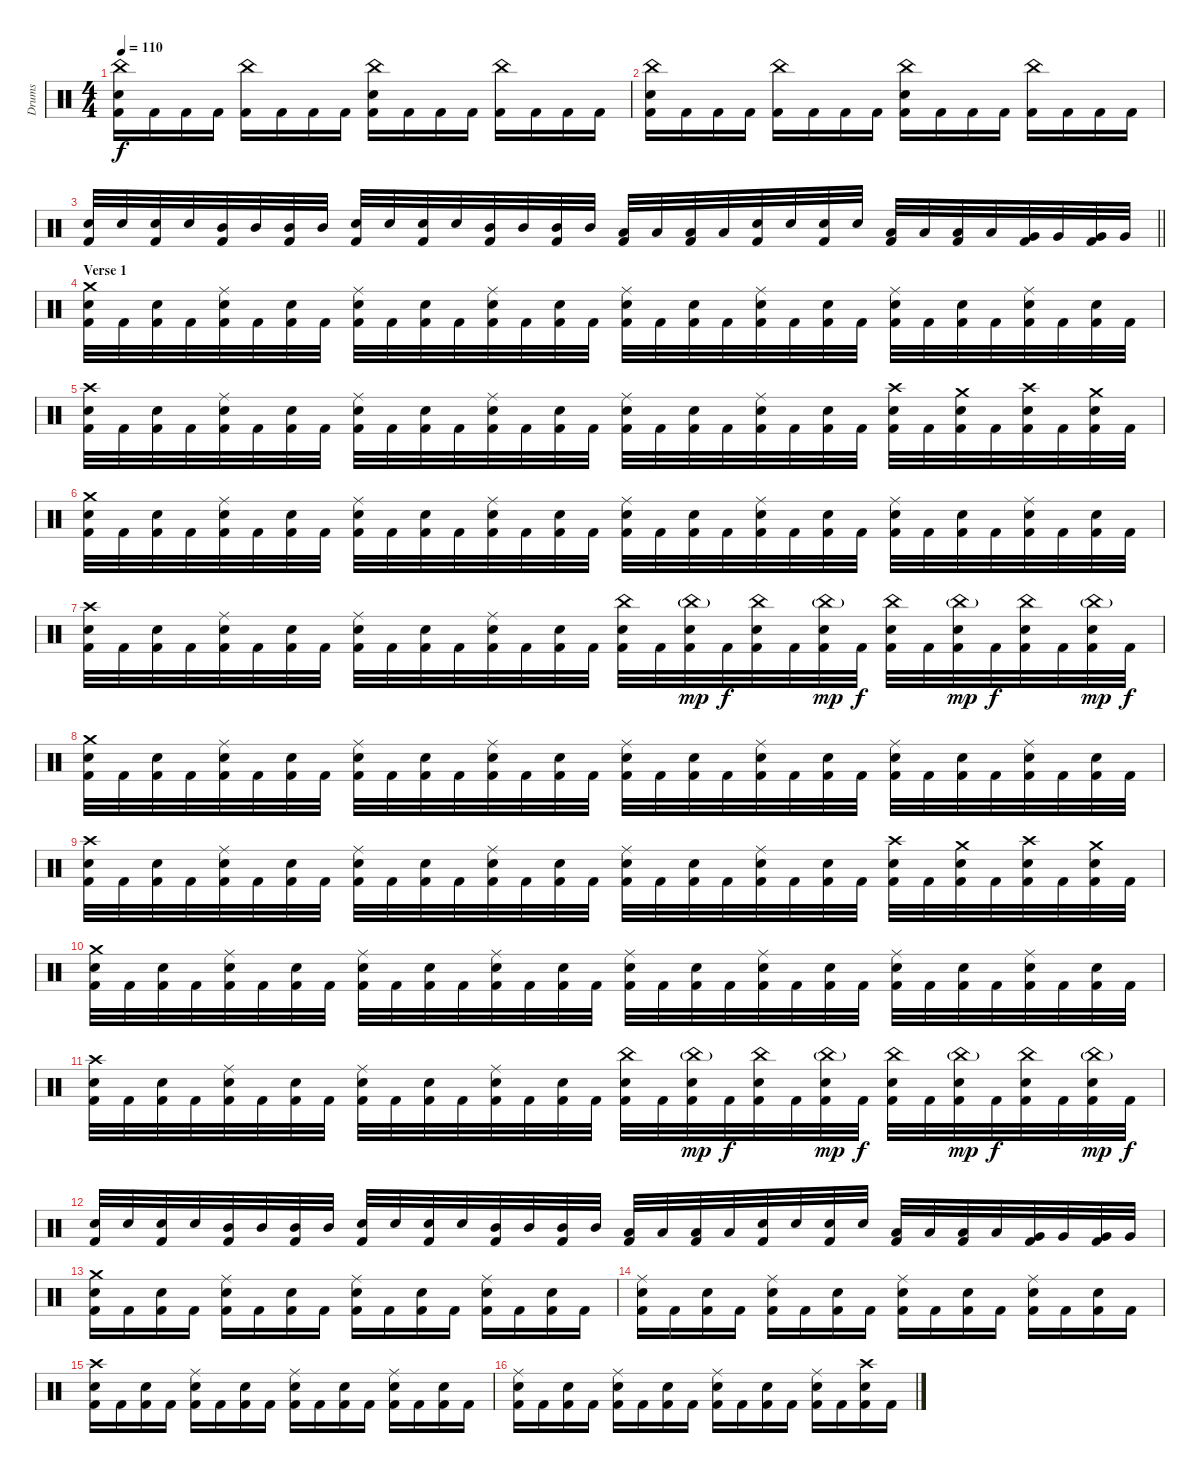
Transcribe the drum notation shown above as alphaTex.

\track ("Drums" "Drums") {instrument percussion}
\staff {score}
\articulation defaults
\ts (4 4)
\tempo 110
\clef neutral
\ks c
("Kick (hit) 2" "Snare (hit) 2" "China (hit)").16{dy f} "Kick (hit) 2".16 "Kick (hit) 2".16 "Kick (hit) 2".16 ("Kick (hit) 2" "China (hit)").16 "Kick (hit) 2".16 "Kick (hit) 2".16 "Kick (hit) 2".16 ("Kick (hit) 2" "Snare (hit) 2" "China (hit)").16 "Kick (hit) 2".16 "Kick (hit) 2".16 "Kick (hit) 2".16 ("Kick (hit) 2" "China (hit)").16 "Kick (hit) 2".16 "Kick (hit) 2".16 "Kick (hit) 2".16 |
("Kick (hit) 2" "Snare (hit) 2" "China (hit)").16 "Kick (hit) 2".16 "Kick (hit) 2".16 "Kick (hit) 2".16 ("Kick (hit) 2" "China (hit)").16 "Kick (hit) 2".16 "Kick (hit) 2".16 "Kick (hit) 2".16 ("Kick (hit) 2" "Snare (hit) 2" "China (hit)").16 "Kick (hit) 2".16 "Kick (hit) 2".16 "Kick (hit) 2".16 ("Kick (hit) 2" "China (hit)").16 "Kick (hit) 2".16 "Kick (hit) 2".16 "Kick (hit) 2".16 |
\barLineRight lightlight
("Kick (hit) 2" "Snare (hit) 2").32 "Snare (hit) 2".32 ("Kick (hit) 2" "Snare (hit) 2").32 "Snare (hit) 2".32 ("Kick (hit) 2" "Mid Tom (hit)").32 "Mid Tom (hit)".32 ("Kick (hit) 2" "Mid Tom (hit)").32 "Mid Tom (hit)".32 ("Kick (hit) 2" "Snare (hit) 2").32 "Snare (hit) 2".32 ("Kick (hit) 2" "Snare (hit) 2").32 "Snare (hit) 2".32 ("Kick (hit) 2" "Mid Tom (hit)").32 "Mid Tom (hit)".32 ("Kick (hit) 2" "Mid Tom (hit)").32 "Mid Tom (hit)".32 ("Kick (hit) 2" "Low Tom (hit)").32 "Low Tom (hit)".32 ("Kick (hit) 2" "Low Tom (hit)").32 "Low Tom (hit)".32 ("Kick (hit) 2" "Snare (hit) 2").32 "Snare (hit) 2".32 ("Kick (hit) 2" "Snare (hit) 2").32 "Snare (hit) 2".32 ("Kick (hit) 2" "Low Tom (hit)").32 "Low Tom (hit)".32 ("Kick (hit) 2" "Low Tom (hit)").32 "Low Tom (hit)".32 ("Kick (hit) 2" "Very Low Tom (hit)").32 "Very Low Tom (hit)".32 ("Kick (hit) 2" "Very Low Tom (hit)").32 "Very Low Tom (hit)".32 |
\section ("" "Verse 1")
("Kick (hit) 2" "Snare (hit) 2" "Crash medium (hit)").32 "Kick (hit) 2".32 ("Kick (hit) 2" "Snare (hit) 2").32 "Kick (hit) 2".32 ("Kick (hit) 2" "Snare (hit) 2" "Ride (middle)").32 "Kick (hit) 2".32 ("Kick (hit) 2" "Snare (hit) 2").32 "Kick (hit) 2".32 ("Kick (hit) 2" "Snare (hit) 2" "Ride (middle)").32 "Kick (hit) 2".32 ("Kick (hit) 2" "Snare (hit) 2").32 "Kick (hit) 2".32 ("Kick (hit) 2" "Snare (hit) 2" "Ride (middle)").32 "Kick (hit) 2".32 ("Kick (hit) 2" "Snare (hit) 2").32 "Kick (hit) 2".32 ("Kick (hit) 2" "Snare (hit) 2" "Ride (middle)").32 "Kick (hit) 2".32 ("Kick (hit) 2" "Snare (hit) 2").32 "Kick (hit) 2".32 ("Kick (hit) 2" "Snare (hit) 2" "Ride (middle)").32 "Kick (hit) 2".32 ("Kick (hit) 2" "Snare (hit) 2").32 "Kick (hit) 2".32 ("Kick (hit) 2" "Snare (hit) 2" "Ride (middle)").32 "Kick (hit) 2".32 ("Kick (hit) 2" "Snare (hit) 2").32 "Kick (hit) 2".32 ("Kick (hit) 2" "Snare (hit) 2" "Ride (middle)").32 "Kick (hit) 2".32 ("Kick (hit) 2" "Snare (hit) 2").32 "Kick (hit) 2".32 |
("Kick (hit) 2" "Snare (hit) 2" "Crash high (hit)").32 "Kick (hit) 2".32 ("Kick (hit) 2" "Snare (hit) 2").32 "Kick (hit) 2".32 ("Kick (hit) 2" "Snare (hit) 2" "Ride (middle)").32 "Kick (hit) 2".32 ("Kick (hit) 2" "Snare (hit) 2").32 "Kick (hit) 2".32 ("Kick (hit) 2" "Snare (hit) 2" "Ride (middle)").32 "Kick (hit) 2".32 ("Kick (hit) 2" "Snare (hit) 2").32 "Kick (hit) 2".32 ("Kick (hit) 2" "Snare (hit) 2" "Ride (middle)").32 "Kick (hit) 2".32 ("Kick (hit) 2" "Snare (hit) 2").32 "Kick (hit) 2".32 ("Kick (hit) 2" "Snare (hit) 2" "Ride (middle)").32 "Kick (hit) 2".32 ("Kick (hit) 2" "Snare (hit) 2").32 "Kick (hit) 2".32 ("Kick (hit) 2" "Snare (hit) 2" "Ride (middle)").32 "Kick (hit) 2".32 ("Kick (hit) 2" "Snare (hit) 2").32 "Kick (hit) 2".32 ("Kick (hit) 2" "Snare (hit) 2" "Crash high (hit)").32 "Kick (hit) 2".32 ("Kick (hit) 2" "Snare (hit) 2" "Crash medium (hit)").32 "Kick (hit) 2".32 ("Kick (hit) 2" "Snare (hit) 2" "Crash high (hit)").32 "Kick (hit) 2".32 ("Kick (hit) 2" "Snare (hit) 2" "Crash medium (hit)").32 "Kick (hit) 2".32 |
("Kick (hit) 2" "Snare (hit) 2" "Crash medium (hit)").32 "Kick (hit) 2".32 ("Kick (hit) 2" "Snare (hit) 2").32 "Kick (hit) 2".32 ("Kick (hit) 2" "Snare (hit) 2" "Ride (middle)").32 "Kick (hit) 2".32 ("Kick (hit) 2" "Snare (hit) 2").32 "Kick (hit) 2".32 ("Kick (hit) 2" "Snare (hit) 2" "Ride (middle)").32 "Kick (hit) 2".32 ("Kick (hit) 2" "Snare (hit) 2").32 "Kick (hit) 2".32 ("Kick (hit) 2" "Snare (hit) 2" "Ride (middle)").32 "Kick (hit) 2".32 ("Kick (hit) 2" "Snare (hit) 2").32 "Kick (hit) 2".32 ("Kick (hit) 2" "Snare (hit) 2" "Ride (middle)").32 "Kick (hit) 2".32 ("Kick (hit) 2" "Snare (hit) 2").32 "Kick (hit) 2".32 ("Kick (hit) 2" "Snare (hit) 2" "Ride (middle)").32 "Kick (hit) 2".32 ("Kick (hit) 2" "Snare (hit) 2").32 "Kick (hit) 2".32 ("Kick (hit) 2" "Snare (hit) 2" "Ride (middle)").32 "Kick (hit) 2".32 ("Kick (hit) 2" "Snare (hit) 2").32 "Kick (hit) 2".32 ("Kick (hit) 2" "Snare (hit) 2" "Ride (middle)").32 "Kick (hit) 2".32 ("Kick (hit) 2" "Snare (hit) 2").32 "Kick (hit) 2".32 |
("Kick (hit) 2" "Snare (hit) 2" "Crash high (hit)").32 "Kick (hit) 2".32 ("Kick (hit) 2" "Snare (hit) 2").32 "Kick (hit) 2".32 ("Kick (hit) 2" "Snare (hit) 2" "Ride (middle)").32 "Kick (hit) 2".32 ("Kick (hit) 2" "Snare (hit) 2").32 "Kick (hit) 2".32 ("Kick (hit) 2" "Snare (hit) 2" "Ride (middle)").32 "Kick (hit) 2".32 ("Kick (hit) 2" "Snare (hit) 2").32 "Kick (hit) 2".32 ("Kick (hit) 2" "Snare (hit) 2" "Ride (middle)").32 "Kick (hit) 2".32 ("Kick (hit) 2" "Snare (hit) 2").32 "Kick (hit) 2".32 ("Kick (hit) 2" "Snare (hit) 2" "China (hit)").32 "Kick (hit) 2".32 ("Kick (hit) 2" "Snare (hit) 2" "China (hit)"{g}).32{dy mp} "Kick (hit) 2".32{dy f} ("Kick (hit) 2" "Snare (hit) 2" "China (hit)").32 "Kick (hit) 2".32 ("Kick (hit) 2" "Snare (hit) 2" "China (hit)"{g}).32{dy mp} "Kick (hit) 2".32{dy f} ("Kick (hit) 2" "Snare (hit) 2" "China (hit)").32 "Kick (hit) 2".32 ("Kick (hit) 2" "Snare (hit) 2" "China (hit)"{g}).32{dy mp} "Kick (hit) 2".32{dy f} ("Kick (hit) 2" "Snare (hit) 2" "China (hit)").32 "Kick (hit) 2".32 ("Kick (hit) 2" "Snare (hit) 2" "China (hit)"{g}).32{dy mp} "Kick (hit) 2".32{dy f} |
("Kick (hit) 2" "Snare (hit) 2" "Crash medium (hit)").32 "Kick (hit) 2".32 ("Kick (hit) 2" "Snare (hit) 2").32 "Kick (hit) 2".32 ("Kick (hit) 2" "Snare (hit) 2" "Ride (middle)").32 "Kick (hit) 2".32 ("Kick (hit) 2" "Snare (hit) 2").32 "Kick (hit) 2".32 ("Kick (hit) 2" "Snare (hit) 2" "Ride (middle)").32 "Kick (hit) 2".32 ("Kick (hit) 2" "Snare (hit) 2").32 "Kick (hit) 2".32 ("Kick (hit) 2" "Snare (hit) 2" "Ride (middle)").32 "Kick (hit) 2".32 ("Kick (hit) 2" "Snare (hit) 2").32 "Kick (hit) 2".32 ("Kick (hit) 2" "Snare (hit) 2" "Ride (middle)").32 "Kick (hit) 2".32 ("Kick (hit) 2" "Snare (hit) 2").32 "Kick (hit) 2".32 ("Kick (hit) 2" "Snare (hit) 2" "Ride (middle)").32 "Kick (hit) 2".32 ("Kick (hit) 2" "Snare (hit) 2").32 "Kick (hit) 2".32 ("Kick (hit) 2" "Snare (hit) 2" "Ride (middle)").32 "Kick (hit) 2".32 ("Kick (hit) 2" "Snare (hit) 2").32 "Kick (hit) 2".32 ("Kick (hit) 2" "Snare (hit) 2" "Ride (middle)").32 "Kick (hit) 2".32 ("Kick (hit) 2" "Snare (hit) 2").32 "Kick (hit) 2".32 |
("Kick (hit) 2" "Snare (hit) 2" "Crash high (hit)").32 "Kick (hit) 2".32 ("Kick (hit) 2" "Snare (hit) 2").32 "Kick (hit) 2".32 ("Kick (hit) 2" "Snare (hit) 2" "Ride (middle)").32 "Kick (hit) 2".32 ("Kick (hit) 2" "Snare (hit) 2").32 "Kick (hit) 2".32 ("Kick (hit) 2" "Snare (hit) 2" "Ride (middle)").32 "Kick (hit) 2".32 ("Kick (hit) 2" "Snare (hit) 2").32 "Kick (hit) 2".32 ("Kick (hit) 2" "Snare (hit) 2" "Ride (middle)").32 "Kick (hit) 2".32 ("Kick (hit) 2" "Snare (hit) 2").32 "Kick (hit) 2".32 ("Kick (hit) 2" "Snare (hit) 2" "Ride (middle)").32 "Kick (hit) 2".32 ("Kick (hit) 2" "Snare (hit) 2").32 "Kick (hit) 2".32 ("Kick (hit) 2" "Snare (hit) 2" "Ride (middle)").32 "Kick (hit) 2".32 ("Kick (hit) 2" "Snare (hit) 2").32 "Kick (hit) 2".32 ("Kick (hit) 2" "Snare (hit) 2" "Crash high (hit)").32 "Kick (hit) 2".32 ("Kick (hit) 2" "Snare (hit) 2" "Crash medium (hit)").32 "Kick (hit) 2".32 ("Kick (hit) 2" "Snare (hit) 2" "Crash high (hit)").32 "Kick (hit) 2".32 ("Kick (hit) 2" "Snare (hit) 2" "Crash medium (hit)").32 "Kick (hit) 2".32 |
("Kick (hit) 2" "Snare (hit) 2" "Crash medium (hit)").32 "Kick (hit) 2".32 ("Kick (hit) 2" "Snare (hit) 2").32 "Kick (hit) 2".32 ("Kick (hit) 2" "Snare (hit) 2" "Ride (middle)").32 "Kick (hit) 2".32 ("Kick (hit) 2" "Snare (hit) 2").32 "Kick (hit) 2".32 ("Kick (hit) 2" "Snare (hit) 2" "Ride (middle)").32 "Kick (hit) 2".32 ("Kick (hit) 2" "Snare (hit) 2").32 "Kick (hit) 2".32 ("Kick (hit) 2" "Snare (hit) 2" "Ride (middle)").32 "Kick (hit) 2".32 ("Kick (hit) 2" "Snare (hit) 2").32 "Kick (hit) 2".32 ("Kick (hit) 2" "Snare (hit) 2" "Ride (middle)").32 "Kick (hit) 2".32 ("Kick (hit) 2" "Snare (hit) 2").32 "Kick (hit) 2".32 ("Kick (hit) 2" "Snare (hit) 2" "Ride (middle)").32 "Kick (hit) 2".32 ("Kick (hit) 2" "Snare (hit) 2").32 "Kick (hit) 2".32 ("Kick (hit) 2" "Snare (hit) 2" "Ride (middle)").32 "Kick (hit) 2".32 ("Kick (hit) 2" "Snare (hit) 2").32 "Kick (hit) 2".32 ("Kick (hit) 2" "Snare (hit) 2" "Ride (middle)").32 "Kick (hit) 2".32 ("Kick (hit) 2" "Snare (hit) 2").32 "Kick (hit) 2".32 |
("Kick (hit) 2" "Snare (hit) 2" "Crash high (hit)").32 "Kick (hit) 2".32 ("Kick (hit) 2" "Snare (hit) 2").32 "Kick (hit) 2".32 ("Kick (hit) 2" "Snare (hit) 2" "Ride (middle)").32 "Kick (hit) 2".32 ("Kick (hit) 2" "Snare (hit) 2").32 "Kick (hit) 2".32 ("Kick (hit) 2" "Snare (hit) 2" "Ride (middle)").32 "Kick (hit) 2".32 ("Kick (hit) 2" "Snare (hit) 2").32 "Kick (hit) 2".32 ("Kick (hit) 2" "Snare (hit) 2" "Ride (middle)").32 "Kick (hit) 2".32 ("Kick (hit) 2" "Snare (hit) 2").32 "Kick (hit) 2".32 ("Kick (hit) 2" "Snare (hit) 2" "China (hit)").32 "Kick (hit) 2".32 ("Kick (hit) 2" "Snare (hit) 2" "China (hit)"{g}).32{dy mp} "Kick (hit) 2".32{dy f} ("Kick (hit) 2" "Snare (hit) 2" "China (hit)").32 "Kick (hit) 2".32 ("Kick (hit) 2" "Snare (hit) 2" "China (hit)"{g}).32{dy mp} "Kick (hit) 2".32{dy f} ("Kick (hit) 2" "Snare (hit) 2" "China (hit)").32 "Kick (hit) 2".32 ("Kick (hit) 2" "Snare (hit) 2" "China (hit)"{g}).32{dy mp} "Kick (hit) 2".32{dy f} ("Kick (hit) 2" "Snare (hit) 2" "China (hit)").32 "Kick (hit) 2".32 ("Kick (hit) 2" "Snare (hit) 2" "China (hit)"{g}).32{dy mp} "Kick (hit) 2".32{dy f} |
("Kick (hit) 2" "Snare (hit) 2").32 "Snare (hit) 2".32 ("Kick (hit) 2" "Snare (hit) 2").32 "Snare (hit) 2".32 ("Kick (hit) 2" "Mid Tom (hit)").32 "Mid Tom (hit)".32 ("Kick (hit) 2" "Mid Tom (hit)").32 "Mid Tom (hit)".32 ("Kick (hit) 2" "Snare (hit) 2").32 "Snare (hit) 2".32 ("Kick (hit) 2" "Snare (hit) 2").32 "Snare (hit) 2".32 ("Kick (hit) 2" "Mid Tom (hit)").32 "Mid Tom (hit)".32 ("Kick (hit) 2" "Mid Tom (hit)").32 "Mid Tom (hit)".32 ("Kick (hit) 2" "Low Tom (hit)").32 "Low Tom (hit)".32 ("Kick (hit) 2" "Low Tom (hit)").32 "Low Tom (hit)".32 ("Kick (hit) 2" "Snare (hit) 2").32 "Snare (hit) 2".32 ("Kick (hit) 2" "Snare (hit) 2").32 "Snare (hit) 2".32 ("Kick (hit) 2" "Low Tom (hit)").32 "Low Tom (hit)".32 ("Kick (hit) 2" "Low Tom (hit)").32 "Low Tom (hit)".32 ("Kick (hit) 2" "Very Low Tom (hit)").32 "Very Low Tom (hit)".32 ("Kick (hit) 2" "Very Low Tom (hit)").32 "Very Low Tom (hit)".32 |
("Kick (hit) 2" "Snare (hit) 2" "Crash medium (hit)").16 "Kick (hit) 2".16 ("Kick (hit) 2" "Snare (hit) 2").16 "Kick (hit) 2".16 ("Kick (hit) 2" "Snare (hit) 2" "Ride (middle)").16 "Kick (hit) 2".16 ("Kick (hit) 2" "Snare (hit) 2").16 "Kick (hit) 2".16 ("Kick (hit) 2" "Snare (hit) 2" "Ride (middle)").16 "Kick (hit) 2".16 ("Kick (hit) 2" "Snare (hit) 2").16 "Kick (hit) 2".16 ("Kick (hit) 2" "Snare (hit) 2" "Ride (middle)").16 "Kick (hit) 2".16 ("Kick (hit) 2" "Snare (hit) 2").16 "Kick (hit) 2".16 |
("Kick (hit) 2" "Snare (hit) 2" "Ride (middle)").16 "Kick (hit) 2".16 ("Kick (hit) 2" "Snare (hit) 2").16 "Kick (hit) 2".16 ("Kick (hit) 2" "Snare (hit) 2" "Ride (middle)").16 "Kick (hit) 2".16 ("Kick (hit) 2" "Snare (hit) 2").16 "Kick (hit) 2".16 ("Kick (hit) 2" "Snare (hit) 2" "Ride (middle)").16 "Kick (hit) 2".16 ("Kick (hit) 2" "Snare (hit) 2").16 "Kick (hit) 2".16 ("Kick (hit) 2" "Snare (hit) 2" "Ride (middle)").16 "Kick (hit) 2".16 ("Kick (hit) 2" "Snare (hit) 2").16 "Kick (hit) 2".16 |
("Kick (hit) 2" "Snare (hit) 2" "Crash high (hit)").16 "Kick (hit) 2".16 ("Kick (hit) 2" "Snare (hit) 2").16 "Kick (hit) 2".16 ("Kick (hit) 2" "Snare (hit) 2" "Ride (middle)").16 "Kick (hit) 2".16 ("Kick (hit) 2" "Snare (hit) 2").16 "Kick (hit) 2".16 ("Kick (hit) 2" "Snare (hit) 2" "Ride (middle)").16 "Kick (hit) 2".16 ("Kick (hit) 2" "Snare (hit) 2").16 "Kick (hit) 2".16 ("Kick (hit) 2" "Snare (hit) 2" "Ride (middle)").16 "Kick (hit) 2".16 ("Kick (hit) 2" "Snare (hit) 2").16 "Kick (hit) 2".16 |
("Kick (hit) 2" "Snare (hit) 2" "Ride (middle)").16 "Kick (hit) 2".16 ("Kick (hit) 2" "Snare (hit) 2").16 "Kick (hit) 2".16 ("Kick (hit) 2" "Snare (hit) 2" "Ride (middle)").16 "Kick (hit) 2".16 ("Kick (hit) 2" "Snare (hit) 2").16 "Kick (hit) 2".16 ("Kick (hit) 2" "Snare (hit) 2" "Ride (middle)").16 "Kick (hit) 2".16 ("Kick (hit) 2" "Snare (hit) 2").16 "Kick (hit) 2".16 ("Kick (hit) 2" "Snare (hit) 2" "Ride (middle)").16 "Kick (hit) 2".16 ("Kick (hit) 2" "Snare (hit) 2" "Crash high (hit)").16 "Kick (hit) 2".16
